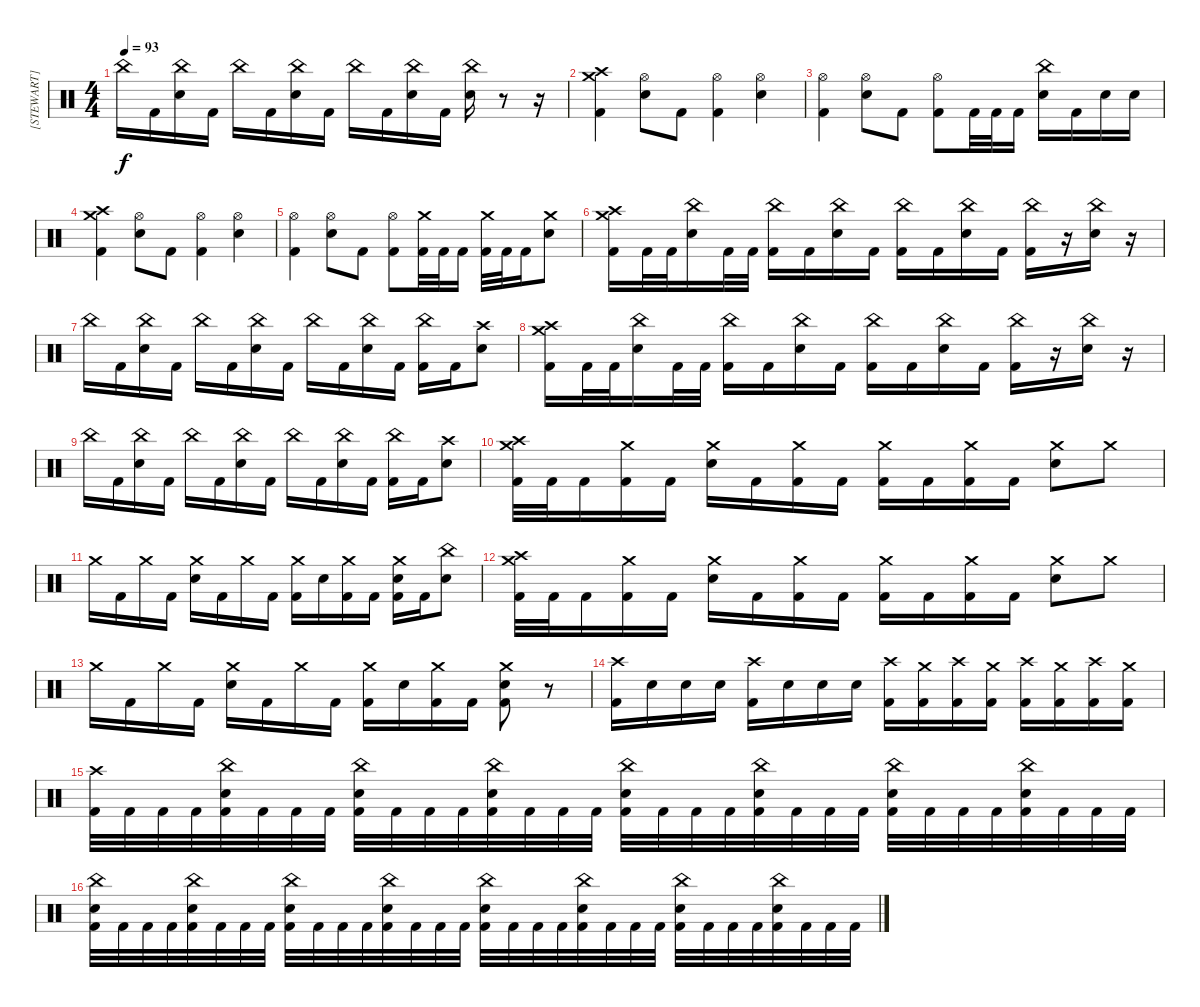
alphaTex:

\track ("[STEWART]" "[STEWART]") {instrument percussion}
\staff
\articulation defaults
\ts (4 4)
\tempo 93
\clef neutral
\ks c "China (hit)".16{dy f} "Kick (hit) 2".16
("China (hit)" "Snare (hit) 2").16 "Kick (hit) 2".16 "China (hit)".16 "Kick (hit) 2".16 ("China (hit)" "Snare (hit) 2").16 "Kick (hit) 2".16 "China (hit)".16 "Kick (hit) 2".16 ("China (hit)" "Snare (hit) 2").16 "Kick (hit) 2".16 ("China (hit)" "Snare (hit) 2").16 r.8 r.16 |
("Crash high (hit)" "Crash medium (hit)" "Kick (hit) 2").4 ("Hi-Hat (open)" "Snare (hit) 2").8 "Kick (hit) 2".8 ("Hi-Hat (open)" "Kick (hit) 2").4 ("Hi-Hat (open)" "Snare (hit) 2").4 |
("Hi-Hat (open)" "Kick (hit) 2").4 ("Hi-Hat (open)" "Snare (hit) 2").8 "Kick (hit) 2".8 ("Hi-Hat (open)" "Kick (hit) 2").8 "Kick (hit) 2".32 "Kick (hit) 2".32 "Kick (hit) 2".16 ("China (hit)" "Snare (hit) 2").16 "Kick (hit) 2".16 "Snare (hit) 2".16 "Snare (hit) 2".16 |
("Crash high (hit)" "Crash medium (hit)" "Kick (hit) 2").4 ("Hi-Hat (open)" "Snare (hit) 2").8 "Kick (hit) 2".8 ("Hi-Hat (open)" "Kick (hit) 2").4 ("Hi-Hat (open)" "Snare (hit) 2").4 |
("Hi-Hat (open)" "Kick (hit) 2").4 ("Hi-Hat (open)" "Snare (hit) 2").8 "Kick (hit) 2".8 ("Hi-Hat (open)" "Kick (hit) 2").8 ("Crash medium (hit)" "Kick (hit) 2").32 "Kick (hit) 2".32 "Kick (hit) 2".16 ("Crash medium (hit)" "Kick (hit) 2").32 "Kick (hit) 2".32 "Kick (hit) 2".16 ("Crash medium (hit)" "Snare (hit) 2").8 |
("Crash high (hit)" "Crash medium (hit)" "Kick (hit) 2").16 "Kick (hit) 2".32 "Kick (hit) 2".32 ("China (hit)" "Snare (hit) 2").16 "Kick (hit) 2".32 "Kick (hit) 2".32 ("China (hit)" "Kick (hit) 2").16 "Kick (hit) 2".16 ("China (hit)" "Snare (hit) 2").16 "Kick (hit) 2".16 ("China (hit)" "Kick (hit) 2").16 "Kick (hit) 2".16 ("China (hit)" "Snare (hit) 2").16 "Kick (hit) 2".16 ("China (hit)" "Kick (hit) 2").16 r.16 ("China (hit)" "Snare (hit) 2").16 r.16 |
"China (hit)".16 "Kick (hit) 2".16 ("China (hit)" "Snare (hit) 2").16 "Kick (hit) 2".16 "China (hit)".16 "Kick (hit) 2".16 ("China (hit)" "Snare (hit) 2").16 "Kick (hit) 2".16 "China (hit)".16 "Kick (hit) 2".16 ("China (hit)" "Snare (hit) 2").16 "Kick (hit) 2".16 ("China (hit)" "Kick (hit) 2").16 "Kick (hit) 2".16 ("Crash high (hit)" "Snare (hit) 2").8 |
("Crash high (hit)" "Crash medium (hit)" "Kick (hit) 2").16 "Kick (hit) 2".32 "Kick (hit) 2".32 ("China (hit)" "Snare (hit) 2").16 "Kick (hit) 2".32 "Kick (hit) 2".32 ("China (hit)" "Kick (hit) 2").16 "Kick (hit) 2".16 ("China (hit)" "Snare (hit) 2").16 "Kick (hit) 2".16 ("China (hit)" "Kick (hit) 2").16 "Kick (hit) 2".16 ("China (hit)" "Snare (hit) 2").16 "Kick (hit) 2".16 ("China (hit)" "Kick (hit) 2").16 r.16 ("China (hit)" "Snare (hit) 2").16 r.16 |
"China (hit)".16 "Kick (hit) 2".16 ("China (hit)" "Snare (hit) 2").16 "Kick (hit) 2".16 "China (hit)".16 "Kick (hit) 2".16 ("China (hit)" "Snare (hit) 2").16 "Kick (hit) 2".16 "China (hit)".16 "Kick (hit) 2".16 ("China (hit)" "Snare (hit) 2").16 "Kick (hit) 2".16 ("China (hit)" "Kick (hit) 2").16 "Kick (hit) 2".16 ("Crash high (hit)" "Snare (hit) 2").8 |
("Crash high (hit)" "Crash medium (hit)" "Kick (hit) 2").32 "Kick (hit) 2".32 "Kick (hit) 2".16 ("Crash medium (hit)" "Kick (hit) 2").16 "Kick (hit) 2".16 ("Crash medium (hit)" "Snare (hit) 2").16 "Kick (hit) 2".16 ("Crash medium (hit)" "Kick (hit) 2").16 "Kick (hit) 2".16 ("Crash medium (hit)" "Kick (hit) 2").16 "Kick (hit) 2".16 ("Crash medium (hit)" "Kick (hit) 2").16 "Kick (hit) 2".16 ("Crash medium (hit)" "Snare (hit) 2").8 "Crash medium (hit)".8 |
"Crash medium (hit)".16 "Kick (hit) 2".16 "Crash medium (hit)".16 "Kick (hit) 2".16 ("Crash medium (hit)" "Snare (hit) 2").16 "Kick (hit) 2".16 "Crash medium (hit)".16 "Kick (hit) 2".16 ("Crash medium (hit)" "Kick (hit) 2").16 "Snare (hit) 2".16 ("Crash medium (hit)" "Kick (hit) 2").16 "Kick (hit) 2".16 ("Crash medium (hit)" "Snare (hit) 2" "Kick (hit) 2").16 "Kick (hit) 2".16 ("China (hit)" "Snare (hit) 2").8 |
("Crash high (hit)" "Crash medium (hit)" "Kick (hit) 2").32 "Kick (hit) 2".32 "Kick (hit) 2".16 ("Crash medium (hit)" "Kick (hit) 2").16 "Kick (hit) 2".16 ("Crash medium (hit)" "Snare (hit) 2").16 "Kick (hit) 2".16 ("Crash medium (hit)" "Kick (hit) 2").16 "Kick (hit) 2".16 ("Crash medium (hit)" "Kick (hit) 2").16 "Kick (hit) 2".16 ("Crash medium (hit)" "Kick (hit) 2").16 "Kick (hit) 2".16 ("Crash medium (hit)" "Snare (hit) 2").8 "Crash medium (hit)".8 |
"Crash medium (hit)".16 "Kick (hit) 2".16 "Crash medium (hit)".16 "Kick (hit) 2".16 ("Crash medium (hit)" "Snare (hit) 2").16 "Kick (hit) 2".16 "Crash medium (hit)".16 "Kick (hit) 2".16 ("Crash medium (hit)" "Kick (hit) 2").16 "Snare (hit) 2".16 ("Crash medium (hit)" "Kick (hit) 2").16 "Kick (hit) 2".16 ("Crash medium (hit)" "Snare (hit) 2" "Kick (hit) 2").8 r.8 |
("Crash high (hit)" "Kick (hit) 2").16 "Snare (hit) 2".16 "Snare (hit) 2".16 "Snare (hit) 2".16 ("Crash high (hit)" "Kick (hit) 2").16 "Snare (hit) 2".16 "Snare (hit) 2".16 "Snare (hit) 2".16 ("Crash high (hit)" "Kick (hit) 2").16 ("Crash medium (hit)" "Kick (hit) 2").16 ("Crash high (hit)" "Kick (hit) 2").16 ("Crash medium (hit)" "Kick (hit) 2").16 ("Crash high (hit)" "Kick (hit) 2").16 ("Crash medium (hit)" "Kick (hit) 2").16 ("Crash high (hit)" "Kick (hit) 2").16 ("Crash medium (hit)" "Kick (hit) 2").16 |
("Crash high (hit)" "Kick (hit) 2").32 "Kick (hit) 2".32 "Kick (hit) 2".32 "Kick (hit) 2".32 ("China (hit)" "Snare (hit) 2" "Kick (hit) 2").32 "Kick (hit) 2".32 "Kick (hit) 2".32 "Kick (hit) 2".32 ("China (hit)" "Snare (hit) 2" "Kick (hit) 2").32 "Kick (hit) 2".32 "Kick (hit) 2".32 "Kick (hit) 2".32 ("China (hit)" "Snare (hit) 2" "Kick (hit) 2").32 "Kick (hit) 2".32 "Kick (hit) 2".32 "Kick (hit) 2".32 ("China (hit)" "Snare (hit) 2" "Kick (hit) 2").32 "Kick (hit) 2".32 "Kick (hit) 2".32 "Kick (hit) 2".32 ("China (hit)" "Snare (hit) 2" "Kick (hit) 2").32 "Kick (hit) 2".32 "Kick (hit) 2".32 "Kick (hit) 2".32 ("China (hit)" "Snare (hit) 2" "Kick (hit) 2").32 "Kick (hit) 2".32 "Kick (hit) 2".32 "Kick (hit) 2".32 ("China (hit)" "Snare (hit) 2" "Kick (hit) 2").32 "Kick (hit) 2".32 "Kick (hit) 2".32 "Kick (hit) 2".32 |
("China (hit)" "Snare (hit) 2" "Kick (hit) 2").32 "Kick (hit) 2".32 "Kick (hit) 2".32 "Kick (hit) 2".32 ("China (hit)" "Snare (hit) 2" "Kick (hit) 2").32 "Kick (hit) 2".32 "Kick (hit) 2".32 "Kick (hit) 2".32 ("China (hit)" "Snare (hit) 2" "Kick (hit) 2").32 "Kick (hit) 2".32 "Kick (hit) 2".32 "Kick (hit) 2".32 ("China (hit)" "Snare (hit) 2" "Kick (hit) 2").32 "Kick (hit) 2".32 "Kick (hit) 2".32 "Kick (hit) 2".32 ("China (hit)" "Snare (hit) 2" "Kick (hit) 2").32 "Kick (hit) 2".32 "Kick (hit) 2".32 "Kick (hit) 2".32 ("China (hit)" "Snare (hit) 2" "Kick (hit) 2").32 "Kick (hit) 2".32 "Kick (hit) 2".32 "Kick (hit) 2".32 ("China (hit)" "Snare (hit) 2" "Kick (hit) 2").32 "Kick (hit) 2".32 "Kick (hit) 2".32 "Kick (hit) 2".32 ("China (hit)" "Snare (hit) 2" "Kick (hit) 2").32 "Kick (hit) 2".32 "Kick (hit) 2".32 "Kick (hit) 2".32
